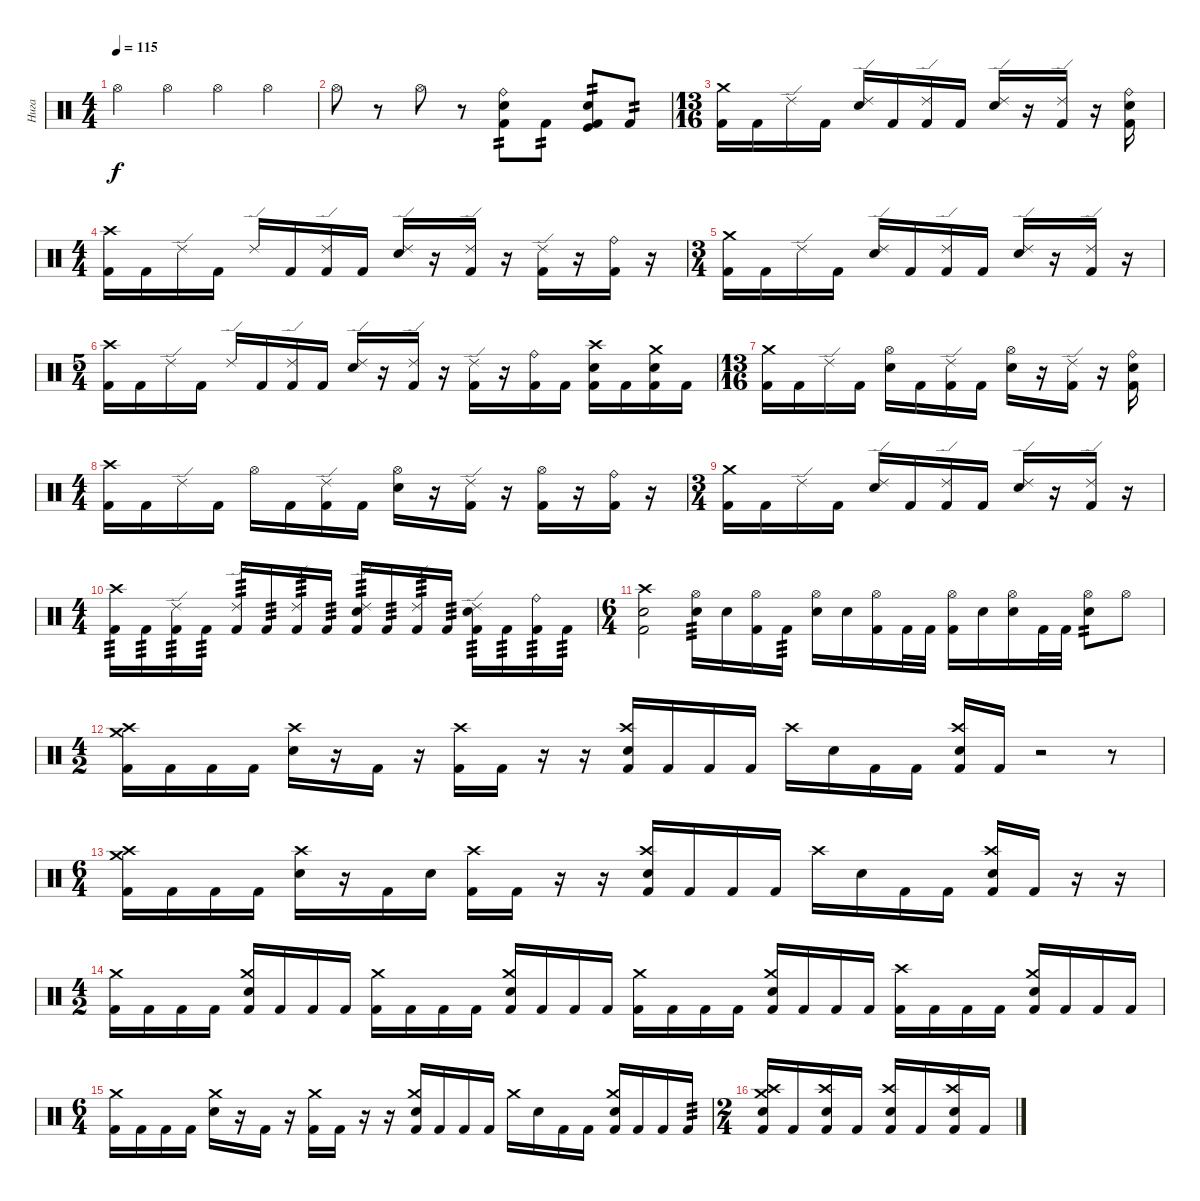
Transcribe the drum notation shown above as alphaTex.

\track ("Нига" "Нига") {instrument percussion}
\staff {score}
\articulation defaults
\ts (4 4)
\tempo 115
\clef neutral
\ks c "Hi-Hat (open)".4{dy f} "Hi-Hat (open)".4 "Hi-Hat (open)".4 "Hi-Hat (open)".4
|
"Hi-Hat (open)".8 r.8 "Hi-Hat (open)".8 r.8 ("Ride (bell)" "Snare (hit) 2" "Kick (hit) 2").8{tp 2} "Kick (hit) 2".8{tp 2} ("Kick (hit)" "Snare (hit) 2" "Kick (hit) 2").8{tp 2} "Kick (hit) 2".8{tp 2} |
\ts (13 16)
("Crash medium (hit)" "Kick (hit) 2").16 "Kick (hit) 2".16 "Ride (edge) 2".16 "Kick (hit) 2".16 ("Ride (edge) 2" "Snare (hit) 2").16 "Kick (hit) 2".16 ("Ride (edge) 2" "Kick (hit) 2").16 "Kick (hit) 2".16 ("Ride (edge) 2" "Snare (hit) 2").16 r.16 ("Ride (edge) 2" "Kick (hit) 2").16 r.16 ("Ride (bell)" "Snare (hit) 2" "Kick (hit) 2").16 |
\ts (4 4)
("Crash high (hit)" "Kick (hit) 2").16 "Kick (hit) 2".16 "Ride (edge) 2".16 "Kick (hit) 2".16 "Ride (edge) 2".16 "Kick (hit) 2".16 ("Ride (edge) 2" "Kick (hit) 2").16 "Kick (hit) 2".16 ("Ride (edge) 2" "Snare (hit) 2").16 r.16 ("Ride (edge) 2" "Kick (hit) 2").16 r.16 ("Ride (edge) 2" "Kick (hit) 2").16 r.16 ("Ride (bell)" "Kick (hit) 2").16 r.16 |
\ts (3 4)
("Crash medium (hit)" "Kick (hit) 2").16 "Kick (hit) 2".16 "Ride (edge) 2".16 "Kick (hit) 2".16 ("Ride (edge) 2" "Snare (hit) 2").16 "Kick (hit) 2".16 ("Ride (edge) 2" "Kick (hit) 2").16 "Kick (hit) 2".16 ("Ride (edge) 2" "Snare (hit) 2").16 r.16 ("Ride (edge) 2" "Kick (hit) 2").16 r.16 |
\ts (5 4)
("Crash high (hit)" "Kick (hit) 2").16 "Kick (hit) 2".16 "Ride (edge) 2".16 "Kick (hit) 2".16 "Ride (edge) 2".16 "Kick (hit) 2".16 ("Ride (edge) 2" "Kick (hit) 2").16 "Kick (hit) 2".16 ("Ride (edge) 2" "Snare (hit) 2").16 r.16 ("Ride (edge) 2" "Kick (hit) 2").16 r.16 ("Ride (edge) 2" "Kick (hit) 2").16 r.16 ("Ride (bell)" "Kick (hit) 2").16 "Kick (hit) 2".16 ("Crash high (hit)" "Snare (hit) 2" "Kick (hit) 2").16 "Kick (hit) 2".16 ("Crash medium (hit)" "Snare (hit) 2" "Kick (hit) 2").16 "Kick (hit) 2".16 |
\ts (13 16)
("Crash medium (hit)" "Kick (hit) 2").16 "Kick (hit) 2".16 "Ride (edge) 2".16 "Kick (hit) 2".16 ("Hi-Hat (open)" "Snare (hit) 2").16 "Kick (hit) 2".16 ("Ride (edge) 2" "Kick (hit) 2").16 "Kick (hit) 2".16 ("Hi-Hat (open)" "Snare (hit) 2").16 r.16 ("Ride (edge) 2" "Kick (hit) 2").16 r.16 ("Ride (bell)" "Snare (hit) 2" "Kick (hit) 2").16 |
\ts (4 4)
("Crash high (hit)" "Kick (hit) 2").16 "Kick (hit) 2".16 "Ride (edge) 2".16 "Kick (hit) 2".16 "Hi-Hat (open)".16 "Kick (hit) 2".16 ("Ride (edge) 2" "Kick (hit) 2").16 "Kick (hit) 2".16 ("Hi-Hat (open)" "Snare (hit) 2").16 r.16 ("Ride (edge) 2" "Kick (hit) 2").16 r.16 ("Hi-Hat (open)" "Kick (hit) 2").16 r.16 ("Ride (bell)" "Kick (hit) 2").16 r.16 |
\ts (3 4)
("Crash medium (hit)" "Kick (hit) 2").16 "Kick (hit) 2".16 "Ride (edge) 2".16 "Kick (hit) 2".16 ("Ride (edge) 2" "Snare (hit) 2").16 "Kick (hit) 2".16 ("Ride (edge) 2" "Kick (hit) 2").16 "Kick (hit) 2".16 ("Ride (edge) 2" "Snare (hit) 2").16 r.16 ("Ride (edge) 2" "Kick (hit) 2").16 r.16 |
\ts (4 4)
("Crash high (hit)" "Kick (hit) 2").16{tp 3} "Kick (hit) 2".16{tp 3} ("Ride (edge) 2" "Kick (hit) 2").16{tp 3} "Kick (hit) 2".16{tp 3} ("Ride (edge) 2" "Kick (hit) 2").16{tp 3} "Kick (hit) 2".16{tp 3} ("Ride (edge) 2" "Kick (hit) 2").16{tp 3} "Kick (hit) 2".16{tp 3} ("Ride (edge) 2" "Snare (hit) 2" "Kick (hit) 2").16{tp 3} "Kick (hit) 2".16{tp 3} ("Ride (edge) 2" "Kick (hit) 2").16{tp 3} "Kick (hit) 2".16{tp 3} ("Ride (edge) 2" "Snare (hit) 2" "Kick (hit) 2").16{tp 3} "Kick (hit) 2".16{tp 3} ("Ride (bell)" "Kick (hit) 2").16{tp 3} "Kick (hit) 2".16{tp 3} |
\ts (6 4)
("Crash high (hit)" "Snare (hit) 2" "Kick (hit) 2").2 ("Hi-Hat (open)" "Snare (hit) 2").16{tp 3} "Snare (hit) 2".16 ("Hi-Hat (open)" "Kick (hit) 2").16 "Kick (hit) 2".16{tp 3} ("Hi-Hat (open)" "Snare (hit) 2").16 "Snare (hit) 2".16 ("Hi-Hat (open)" "Kick (hit) 2").16 "Kick (hit) 2".32 "Kick (hit) 2".32 ("Hi-Hat (open)" "Kick (hit) 2").16 "Snare (hit) 2".16 ("Hi-Hat (open)" "Snare (hit) 2").16 "Kick (hit) 2".32 "Kick (hit) 2".32 ("Hi-Hat (open)" "Snare (hit) 2").8{tp 2} "Hi-Hat (open)".8 |
\ts (4 2)
("Crash medium (hit)" "Crash high (hit)" "Kick (hit) 2").16 "Kick (hit) 2".16 "Kick (hit) 2".16 "Kick (hit) 2".16 ("Crash high (hit)" "Electric Snare (hit)").16 r.16 "Kick (hit) 2".16 r.16 ("Crash high (hit)" "Kick (hit) 2").16 "Kick (hit) 2".16 r.16 r.16 ("Crash high (hit)" "Electric Snare (hit)" "Kick (hit) 2").16 "Kick (hit) 2".16 "Kick (hit) 2".16 "Kick (hit) 2".16 "Crash high (hit)".16 "Electric Snare (hit)".16 "Kick (hit) 2".16 "Kick (hit) 2".16 ("Crash high (hit)" "Electric Snare (hit)" "Kick (hit) 2").16 "Kick (hit) 2".16 r.2 r.8 |
\ts (6 4)
("Crash medium (hit)" "Crash high (hit)" "Kick (hit) 2").16 "Kick (hit) 2".16 "Kick (hit) 2".16 "Kick (hit) 2".16 ("Crash high (hit)" "Electric Snare (hit)").16 r.16 "Kick (hit) 2".16 "Electric Snare (hit)".16 ("Crash high (hit)" "Kick (hit) 2").16 "Kick (hit) 2".16 r.16 r.16 ("Crash high (hit)" "Electric Snare (hit)" "Kick (hit) 2").16 "Kick (hit) 2".16 "Kick (hit) 2".16 "Kick (hit) 2".16 "Crash high (hit)".16 "Electric Snare (hit)".16 "Kick (hit) 2".16 "Kick (hit) 2".16 ("Crash high (hit)" "Electric Snare (hit)" "Kick (hit) 2").16 "Kick (hit) 2".16 r.16 r.16 |
\ts (4 2)
("Crash medium (hit)" "Kick (hit) 2").16 "Kick (hit) 2".16 "Kick (hit) 2".16 "Kick (hit) 2".16 ("Crash medium (hit)" "Electric Snare (hit)" "Kick (hit) 2").16 "Kick (hit) 2".16 "Kick (hit) 2".16 "Kick (hit) 2".16 ("Crash medium (hit)" "Kick (hit) 2").16 "Kick (hit) 2".16 "Kick (hit) 2".16 "Kick (hit) 2".16 ("Crash medium (hit)" "Electric Snare (hit)" "Kick (hit) 2").16 "Kick (hit) 2".16 "Kick (hit) 2".16 "Kick (hit) 2".16 ("Crash medium (hit)" "Kick (hit) 2").16 "Kick (hit) 2".16 "Kick (hit) 2".16 "Kick (hit) 2".16 ("Crash medium (hit)" "Electric Snare (hit)" "Kick (hit) 2").16 "Kick (hit) 2".16 "Kick (hit) 2".16 "Kick (hit) 2".16 ("Crash high (hit)" "Kick (hit) 2").16 "Kick (hit) 2".16 "Kick (hit) 2".16 "Kick (hit) 2".16 ("Crash medium (hit)" "Electric Snare (hit)" "Kick (hit) 2").16 "Kick (hit) 2".16 "Kick (hit) 2".16 "Kick (hit) 2".16 |
\ts (6 4)
("Crash medium (hit)" "Kick (hit) 2").16 "Kick (hit) 2".16 "Kick (hit) 2".16 "Kick (hit) 2".16 ("Crash medium (hit)" "Electric Snare (hit)").16 r.16 "Kick (hit) 2".16 r.16 ("Crash medium (hit)" "Kick (hit) 2").16 "Kick (hit) 2".16 r.16 r.16 ("Crash medium (hit)" "Electric Snare (hit)" "Kick (hit) 2").16 "Kick (hit) 2".16 "Kick (hit) 2".16 "Kick (hit) 2".16 "Crash medium (hit)".16 "Electric Snare (hit)".16 "Kick (hit) 2".16 "Kick (hit) 2".16 ("Crash medium (hit)" "Electric Snare (hit)" "Kick (hit) 2").16 "Kick (hit) 2".16 "Kick (hit) 2".16 "Kick (hit) 2".16{tp 3} |
\ts (2 4)
("Crash medium (hit)" "Crash high (hit)" "Electric Snare (hit)" "Kick (hit) 2").16 "Kick (hit) 2".16 ("Crash high (hit)" "Electric Snare (hit)" "Kick (hit) 2").16 "Kick (hit) 2".16 ("Crash high (hit)" "Electric Snare (hit)" "Kick (hit) 2").16 "Kick (hit) 2".16 ("Crash high (hit)" "Electric Snare (hit)" "Kick (hit) 2").16 "Kick (hit) 2".16
